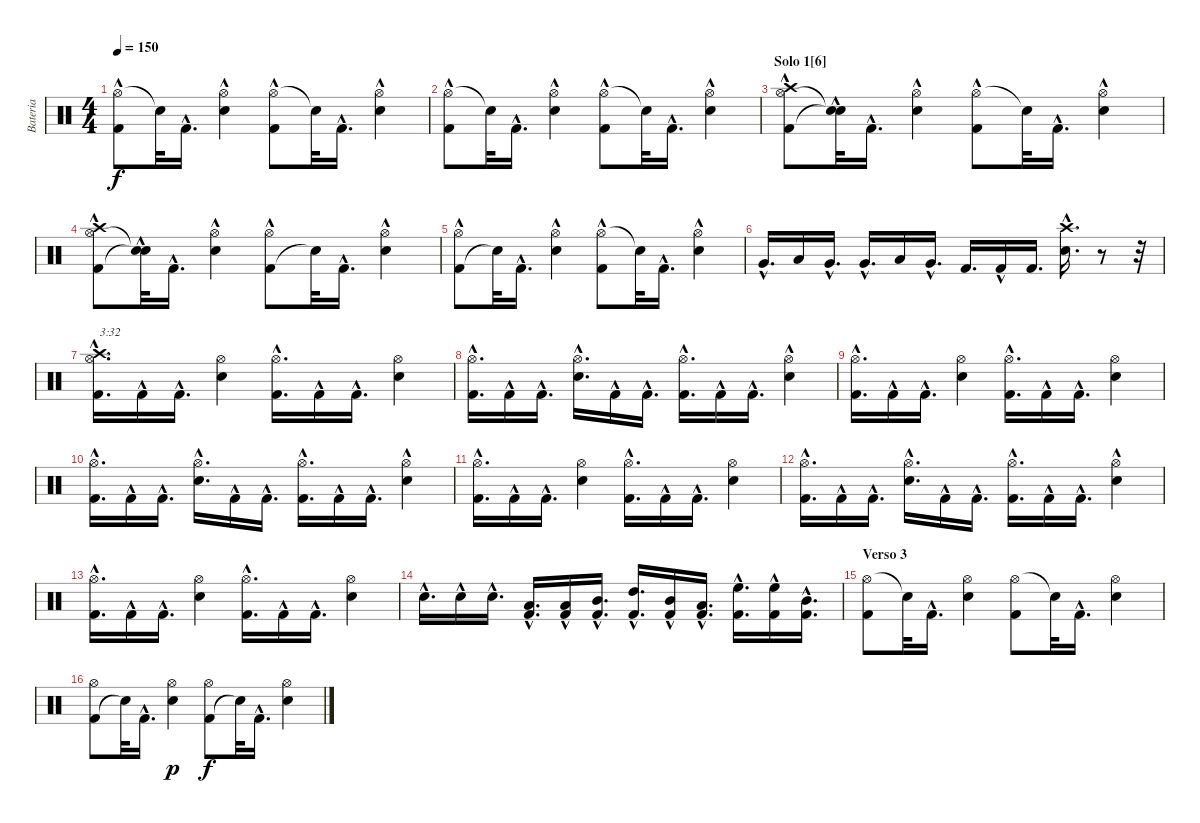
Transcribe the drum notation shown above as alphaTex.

\track ("Bateria" "Bateria") {instrument percussion}
\staff {score}
\articulation defaults
\ts (4 4)
\tempo 150
\clef neutral
\ks c
("Hi-Hat (open)" "Kick (hit) 2"{hac}).8{dy f} "Snare (hit)"{t}.32 "Kick (hit) 2"{hac}.16{d} ("Snare (hit) 2"{hac} "Hi-Hat (open)").4 ("Hi-Hat (open)" "Kick (hit) 2"{hac}).8 "Snare (hit)"{t}.32 "Kick (hit) 2"{hac}.16{d} ("Snare (hit) 2"{hac} "Hi-Hat (open)").4 |
("Hi-Hat (open)" "Kick (hit) 2"{hac}).8 "Snare (hit)"{t}.32 "Kick (hit) 2"{hac}.16{d} ("Snare (hit) 2"{hac} "Hi-Hat (open)").4 ("Hi-Hat (open)" "Kick (hit) 2"{hac}).8 "Snare (hit)"{t}.32 "Kick (hit) 2"{hac}.16{d} ("Snare (hit) 2"{hac} "Hi-Hat (open)").4 |
\section ("" "Solo 1[6]")
("Hi-Hat (open)" "Kick (hit) 2"{hac} "Crash high (hit)").8 ("Snare (hit)"{t} "Snare (hit)"{hac t}).32 "Kick (hit) 2"{hac}.16{d} ("Hi-Hat (open)" "Snare (hit) 2"{hac}).4 ("Hi-Hat (open)" "Kick (hit) 2"{hac}).8 "Snare (hit)"{t}.32 "Kick (hit) 2"{hac}.16{d} ("Hi-Hat (open)" "Snare (hit) 2"{hac}).4 |
("Kick (hit) 2"{hac} "Hi-Hat (open)" "Crash high (hit)").8 ("Snare (hit)"{t} "Snare (hit)"{hac t}).32 "Kick (hit) 2"{hac}.16{d} ("Hi-Hat (open)" "Snare (hit) 2"{hac}).4 ("Kick (hit) 2"{hac} "Hi-Hat (open)").8 "Snare (hit)"{t}.32 "Kick (hit) 2"{hac}.16{d} ("Snare (hit) 2"{hac} "Hi-Hat (open)").4 |
("Kick (hit) 2"{hac} "Hi-Hat (open)").8 "Snare (hit)"{t}.32 "Kick (hit) 2"{hac}.16{d} ("Snare (hit) 2"{hac} "Hi-Hat (open)").4 ("Hi-Hat (open)" "Kick (hit) 2"{hac}).8 "Snare (hit)"{t}.32 "Kick (hit) 2"{hac}.16{d} ("Hi-Hat (open)" "Snare (hit) 2"{hac}).4 |
"Very Low Tom (hit)"{hac}.16{d} "Low Tom (hit)".16 "Very Low Tom (hit)"{hac}.16{d} "Very Low Tom (hit)"{hac}.16{d} "Low Tom (hit)".16 "Very Low Tom (hit)"{hac}.16{d} "Kick (hit) 2".16{d} "Kick (hit) 2"{hac}.16 "Kick (hit) 2".16{d} ("Crash high (hit)"{hac} "Snare (hit) 2"{hac}).16{d} r.8 r.32 |
("Hi-Hat (open)" "Crash high (hit)" "Kick (hit) 2"{hac}).16{d txt "3:32"} "Kick (hit) 2"{hac}.16 "Kick (hit) 2"{hac}.16{d} ("Hi-Hat (open)" "Snare (hit) 2").4 ("Hi-Hat (open)" "Kick (hit) 2"{hac}).16{d} "Kick (hit) 2"{hac}.16 "Kick (hit) 2"{hac}.16{d} ("Snare (hit) 2" "Hi-Hat (open)").4 |
("Hi-Hat (open)" "Kick (hit) 2"{hac}).16{d} "Kick (hit) 2"{hac}.16 "Kick (hit) 2"{hac}.16{d} ("Snare (hit) 2"{hac} "Hi-Hat (open)").16{d} "Kick (hit) 2"{hac}.16 "Kick (hit) 2"{hac}.16{d} ("Kick (hit) 2"{hac} "Hi-Hat (open)").16{d} "Kick (hit) 2"{hac}.16 "Kick (hit) 2"{hac}.16{d} ("Electric Snare (hit)"{hac} "Hi-Hat (open)").4 |
("Kick (hit) 2"{hac} "Hi-Hat (open)").16{d} "Kick (hit) 2"{hac}.16 "Kick (hit) 2"{hac}.16{d} ("Snare (hit) 2" "Hi-Hat (open)").4 ("Hi-Hat (open)" "Kick (hit) 2"{hac}).16{d} "Kick (hit) 2"{hac}.16 "Kick (hit) 2"{hac}.16{d} ("Hi-Hat (open)" "Snare (hit) 2").4 |
("Hi-Hat (open)" "Kick (hit) 2"{hac}).16{d} "Kick (hit) 2"{hac}.16 "Kick (hit) 2"{hac}.16{d} ("Hi-Hat (open)" "Snare (hit) 2"{hac}).16{d} "Kick (hit) 2"{hac}.16 "Kick (hit) 2"{hac}.16{d} ("Hi-Hat (open)" "Kick (hit) 2"{hac}).16{d} "Kick (hit) 2"{hac}.16 "Kick (hit) 2"{hac}.16{d} ("Hi-Hat (open)" "Electric Snare (hit)"{hac}).4 |
("Hi-Hat (open)" "Kick (hit) 2"{hac}).16{d} "Kick (hit) 2"{hac}.16 "Kick (hit) 2"{hac}.16{d} ("Snare (hit) 2" "Hi-Hat (open)").4 ("Hi-Hat (open)" "Kick (hit) 2"{hac}).16{d} "Kick (hit) 2"{hac}.16 "Kick (hit) 2"{hac}.16{d} ("Snare (hit) 2" "Hi-Hat (open)").4 |
("Hi-Hat (open)" "Kick (hit) 2"{hac}).16{d} "Kick (hit) 2"{hac}.16 "Kick (hit) 2"{hac}.16{d} ("Snare (hit) 2"{hac} "Hi-Hat (open)").16{d} "Kick (hit) 2"{hac}.16 "Kick (hit) 2"{hac}.16{d} ("Kick (hit) 2"{hac} "Hi-Hat (open)").16{d} "Kick (hit) 2"{hac}.16 "Kick (hit) 2"{hac}.16{d} ("Electric Snare (hit)"{hac} "Hi-Hat (open)").4 |
("Kick (hit) 2"{hac} "Hi-Hat (open)").16{d} "Kick (hit) 2"{hac}.16 "Kick (hit) 2"{hac}.16{d} ("Hi-Hat (open)" "Snare (hit) 2").4 ("Hi-Hat (open)" "Kick (hit) 2"{hac}).16{d} "Kick (hit) 2"{hac}.16 "Kick (hit) 2"{hac}.16{d} ("Snare (hit) 2" "Hi-Hat (open)").4 |
"Snare (hit) 2"{hac}.16{d} "Snare (hit) 2"{hac}.16 "Snare (hit) 2"{hac}.16{d} ("Kick (hit) 2"{hac} "Low Tom (hit)"{hac}).16{d} ("Low Tom (hit)"{hac} "Kick (hit) 2"{hac}).16 ("Kick (hit) 2"{hac} "Mid Tom (hit)"{hac}).16{d} ("Kick (hit) 2"{hac} "High Tom (hit)"{hac}).16{d} ("Mid Tom (hit)"{hac} "Kick (hit) 2"{hac}).16 ("Kick (hit) 2"{hac} "Low Tom (hit)"{hac}).16{d} ("High Floor Tom (hit)"{hac} "Kick (hit) 2"{hac}).16{d} ("Kick (hit) 2"{hac} "High Floor Tom (hit)"{hac}).16 ("Kick (hit) 2"{hac} "Mid Tom (hit)"{hac}).16{d} |
\section ("" "Verso 3")
("Hi-Hat (open)" "Kick (hit) 2").8 "Snare (hit)"{t}.32 "Kick (hit) 2"{hac}.16{d} ("Hi-Hat (open)" "Snare (hit) 2").4 ("Hi-Hat (open)" "Kick (hit) 2").8 "Snare (hit)"{t}.32 "Kick (hit) 2"{hac}.16{d} ("Hi-Hat (open)" "Snare (hit) 2").4 |
("Kick (hit) 2" "Hi-Hat (open)").8 "Snare (hit)"{t}.32 "Kick (hit) 2"{hac}.16{d} ("Snare (hit) 2" "Hi-Hat (open)").4{dy p} ("Kick (hit) 2" "Hi-Hat (open)").8{dy f} "Snare (hit)"{t}.32 "Kick (hit) 2"{hac}.16{d} ("Snare (hit) 2" "Hi-Hat (open)").4
